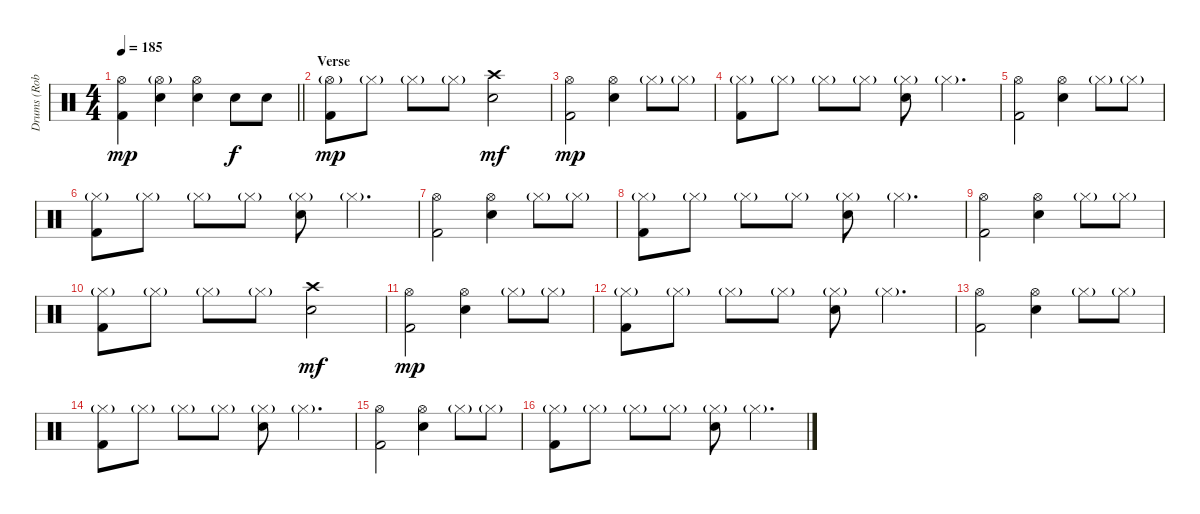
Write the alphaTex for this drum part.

\track ("Drums (Robert Ortiz)" "Drums (Rob") {instrument percussion}
\staff {score}
\articulation defaults
\ts (4 4)
\tempo 185
\clef neutral
\barLineRight lightlight
\ks c
("Hi-Hat (open)" "Kick (hit) 2").4{dy mp} ("Hi-Hat (open)"{g} "Electric Snare (hit)").4 ("Hi-Hat (open)" "Electric Snare (hit)").4 "Electric Snare (hit)".8{dy f} "Electric Snare (hit)".8 |
\section ("" "Verse")
("Hi-Hat (open)"{g} "Kick (hit) 2").8{dy mp} "Hi-Hat (closed)"{g}.8 "Hi-Hat (closed)"{g}.8 "Hi-Hat (closed)"{g}.8 ("Crash high (hit)" "Electric Snare (hit)").2{dy mf} |
("Hi-Hat (open)" "Kick (hit) 2").2{dy mp} ("Hi-Hat (open)" "Electric Snare (hit)").4 "Hi-Hat (closed)"{g}.8 "Hi-Hat (closed)"{g}.8 |
("Hi-Hat (closed)"{g} "Kick (hit) 2").8 "Hi-Hat (closed)"{g}.8 "Hi-Hat (closed)"{g}.8 "Hi-Hat (closed)"{g}.8 ("Hi-Hat (closed)"{g} "Electric Snare (hit)").8 "Hi-Hat (closed)"{g}.4{d} |
("Hi-Hat (open)" "Kick (hit) 2").2 ("Hi-Hat (open)" "Electric Snare (hit)").4 "Hi-Hat (closed)"{g}.8 "Hi-Hat (closed)"{g}.8 |
("Hi-Hat (closed)"{g} "Kick (hit) 2").8 "Hi-Hat (closed)"{g}.8 "Hi-Hat (closed)"{g}.8 "Hi-Hat (closed)"{g}.8 ("Hi-Hat (closed)"{g} "Electric Snare (hit)").8 "Hi-Hat (closed)"{g}.4{d} |
("Hi-Hat (open)" "Kick (hit) 2").2 ("Hi-Hat (open)" "Electric Snare (hit)").4 "Hi-Hat (closed)"{g}.8 "Hi-Hat (closed)"{g}.8 |
("Hi-Hat (closed)"{g} "Kick (hit) 2").8 "Hi-Hat (closed)"{g}.8 "Hi-Hat (closed)"{g}.8 "Hi-Hat (closed)"{g}.8 ("Hi-Hat (closed)"{g} "Electric Snare (hit)").8 "Hi-Hat (closed)"{g}.4{d} |
("Hi-Hat (open)" "Kick (hit) 2").2 ("Hi-Hat (open)" "Electric Snare (hit)").4 "Hi-Hat (closed)"{g}.8 "Hi-Hat (closed)"{g}.8 |
("Hi-Hat (closed)"{g} "Kick (hit) 2").8 "Hi-Hat (closed)"{g}.8 "Hi-Hat (closed)"{g}.8 "Hi-Hat (closed)"{g}.8 ("Crash high (hit)" "Electric Snare (hit)").2{dy mf} |
("Hi-Hat (open)" "Kick (hit) 2").2{dy mp} ("Hi-Hat (open)" "Electric Snare (hit)").4 "Hi-Hat (closed)"{g}.8 "Hi-Hat (closed)"{g}.8 |
("Hi-Hat (closed)"{g} "Kick (hit) 2").8 "Hi-Hat (closed)"{g}.8 "Hi-Hat (closed)"{g}.8 "Hi-Hat (closed)"{g}.8 ("Hi-Hat (closed)"{g} "Electric Snare (hit)").8 "Hi-Hat (closed)"{g}.4{d} |
("Hi-Hat (open)" "Kick (hit) 2").2 ("Hi-Hat (open)" "Electric Snare (hit)").4 "Hi-Hat (closed)"{g}.8 "Hi-Hat (closed)"{g}.8 |
("Hi-Hat (closed)"{g} "Kick (hit) 2").8 "Hi-Hat (closed)"{g}.8 "Hi-Hat (closed)"{g}.8 "Hi-Hat (closed)"{g}.8 ("Hi-Hat (closed)"{g} "Electric Snare (hit)").8 "Hi-Hat (closed)"{g}.4{d} |
("Hi-Hat (open)" "Kick (hit) 2").2 ("Hi-Hat (open)" "Electric Snare (hit)").4 "Hi-Hat (closed)"{g}.8 "Hi-Hat (closed)"{g}.8 |
("Hi-Hat (closed)"{g} "Kick (hit) 2").8 "Hi-Hat (closed)"{g}.8 "Hi-Hat (closed)"{g}.8 "Hi-Hat (closed)"{g}.8 ("Hi-Hat (closed)"{g} "Electric Snare (hit)").8 "Hi-Hat (closed)"{g}.4{d}
